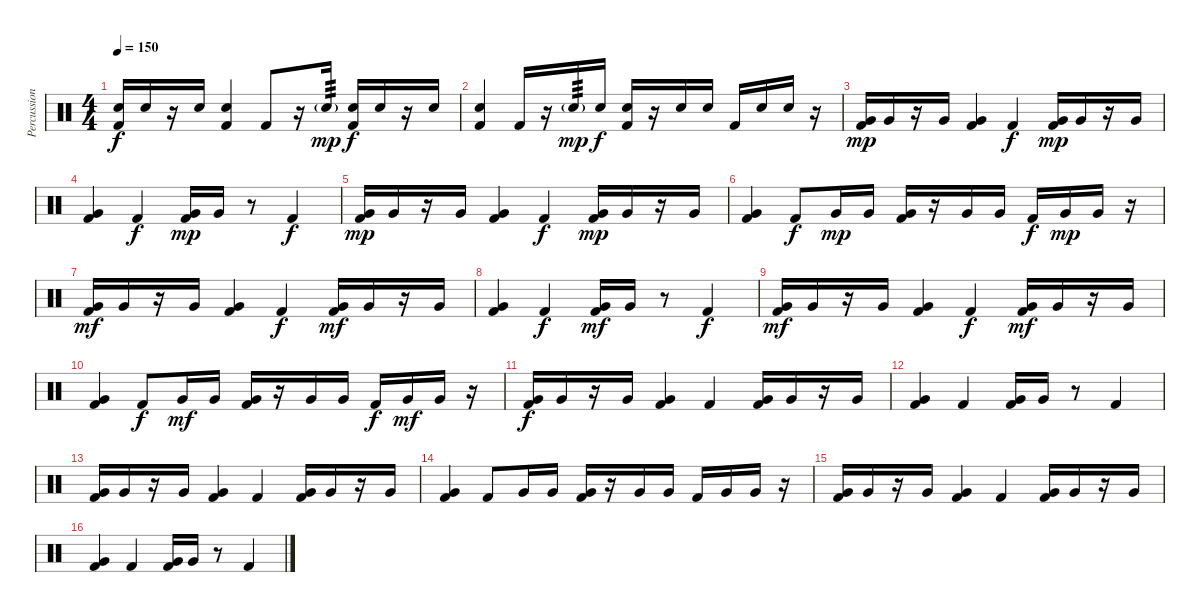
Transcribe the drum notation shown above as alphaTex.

\track ("Percussion" "Percussion") {instrument percussion}
\staff {score}
\articulation defaults
\ts (4 4)
\tempo 150
\clef neutral
\ks c
("Snare (hit) 2" "Kick (hit) 2").16{dy f} "Snare (hit) 2".16 r.16 "Snare (hit) 2".16 ("Snare (hit) 2" "Kick (hit) 2").4 "Kick (hit) 2".8 r.16 "Snare (hit) 2"{g}.16{tp 3 dy mp} ("Snare (hit) 2" "Kick (hit) 2").16{dy f} "Snare (hit) 2".16 r.16 "Snare (hit) 2".16 |
("Snare (hit) 2" "Kick (hit) 2").4 "Kick (hit) 2".16 r.16 "Snare (hit) 2"{g}.16{tp 3 dy mp} "Snare (hit) 2".16{dy f} ("Snare (hit) 2" "Kick (hit) 2").16 r.16 "Snare (hit) 2".16 "Snare (hit) 2".16 "Kick (hit) 2".16 "Snare (hit) 2".16 "Snare (hit) 2".16 r.16 |
("Very Low Tom (hit)" "Kick (hit) 2").16{dy mp} "Very Low Tom (hit)".16 r.16 "Very Low Tom (hit)".16 ("Very Low Tom (hit)" "Kick (hit) 2").4 "Kick (hit) 2".4{dy f} ("Very Low Tom (hit)" "Kick (hit) 2").16{dy mp} "Very Low Tom (hit)".16 r.16 "Very Low Tom (hit)".16 |
("Very Low Tom (hit)" "Kick (hit) 2").4 "Kick (hit) 2".4{dy f} ("Very Low Tom (hit)" "Kick (hit) 2").16{dy mp} "Very Low Tom (hit)".16 r.8 "Kick (hit) 2".4{dy f} |
("Very Low Tom (hit)" "Kick (hit) 2").16{dy mp} "Very Low Tom (hit)".16 r.16 "Very Low Tom (hit)".16 ("Very Low Tom (hit)" "Kick (hit) 2").4 "Kick (hit) 2".4{dy f} ("Very Low Tom (hit)" "Kick (hit) 2").16{dy mp} "Very Low Tom (hit)".16 r.16 "Very Low Tom (hit)".16 |
("Very Low Tom (hit)" "Kick (hit) 2").4 "Kick (hit) 2".8{dy f} "Very Low Tom (hit)".16{dy mp} "Very Low Tom (hit)".16 ("Very Low Tom (hit)" "Kick (hit) 2").16 r.16 "Very Low Tom (hit)".16 "Very Low Tom (hit)".16 "Kick (hit) 2".16{dy f} "Very Low Tom (hit)".16{dy mp} "Very Low Tom (hit)".16 r.16 |
("Very Low Tom (hit)" "Kick (hit) 2").16{dy mf} "Very Low Tom (hit)".16 r.16 "Very Low Tom (hit)".16 ("Very Low Tom (hit)" "Kick (hit) 2").4 "Kick (hit) 2".4{dy f} ("Very Low Tom (hit)" "Kick (hit) 2").16{dy mf} "Very Low Tom (hit)".16 r.16 "Very Low Tom (hit)".16 |
("Very Low Tom (hit)" "Kick (hit) 2").4 "Kick (hit) 2".4{dy f} ("Very Low Tom (hit)" "Kick (hit) 2").16{dy mf} "Very Low Tom (hit)".16 r.8 "Kick (hit) 2".4{dy f} |
("Very Low Tom (hit)" "Kick (hit) 2").16{dy mf} "Very Low Tom (hit)".16 r.16 "Very Low Tom (hit)".16 ("Very Low Tom (hit)" "Kick (hit) 2").4 "Kick (hit) 2".4{dy f} ("Very Low Tom (hit)" "Kick (hit) 2").16{dy mf} "Very Low Tom (hit)".16 r.16 "Very Low Tom (hit)".16 |
("Very Low Tom (hit)" "Kick (hit) 2").4 "Kick (hit) 2".8{dy f} "Very Low Tom (hit)".16{dy mf} "Very Low Tom (hit)".16 ("Very Low Tom (hit)" "Kick (hit) 2").16 r.16 "Very Low Tom (hit)".16 "Very Low Tom (hit)".16 "Kick (hit) 2".16{dy f} "Very Low Tom (hit)".16{dy mf} "Very Low Tom (hit)".16 r.16 |
("Very Low Tom (hit)" "Kick (hit) 2").16{dy f} "Very Low Tom (hit)".16 r.16 "Very Low Tom (hit)".16 ("Very Low Tom (hit)" "Kick (hit) 2").4 "Kick (hit) 2".4 ("Very Low Tom (hit)" "Kick (hit) 2").16 "Very Low Tom (hit)".16 r.16 "Very Low Tom (hit)".16 |
("Very Low Tom (hit)" "Kick (hit) 2").4 "Kick (hit) 2".4 ("Very Low Tom (hit)" "Kick (hit) 2").16 "Very Low Tom (hit)".16 r.8 "Kick (hit) 2".4 |
("Very Low Tom (hit)" "Kick (hit) 2").16 "Very Low Tom (hit)".16 r.16 "Very Low Tom (hit)".16 ("Very Low Tom (hit)" "Kick (hit) 2").4 "Kick (hit) 2".4 ("Very Low Tom (hit)" "Kick (hit) 2").16 "Very Low Tom (hit)".16 r.16 "Very Low Tom (hit)".16 |
("Very Low Tom (hit)" "Kick (hit) 2").4 "Kick (hit) 2".8 "Very Low Tom (hit)".16 "Very Low Tom (hit)".16 ("Very Low Tom (hit)" "Kick (hit) 2").16 r.16 "Very Low Tom (hit)".16 "Very Low Tom (hit)".16 "Kick (hit) 2".16 "Very Low Tom (hit)".16 "Very Low Tom (hit)".16 r.16 |
("Very Low Tom (hit)" "Kick (hit) 2").16 "Very Low Tom (hit)".16 r.16 "Very Low Tom (hit)".16 ("Very Low Tom (hit)" "Kick (hit) 2").4 "Kick (hit) 2".4 ("Very Low Tom (hit)" "Kick (hit) 2").16 "Very Low Tom (hit)".16 r.16 "Very Low Tom (hit)".16 |
("Very Low Tom (hit)" "Kick (hit) 2").4 "Kick (hit) 2".4 ("Very Low Tom (hit)" "Kick (hit) 2").16 "Very Low Tom (hit)".16 r.8 "Kick (hit) 2".4
